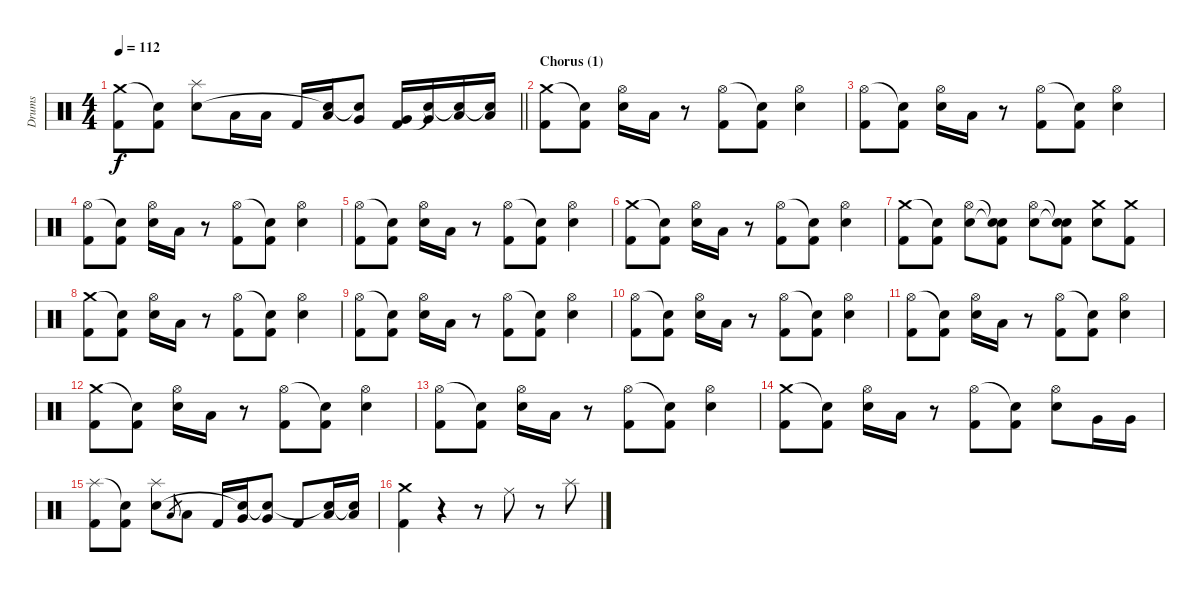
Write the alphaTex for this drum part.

\track ("Drums" "Drums") {instrument percussion}
\staff {score}
\articulation defaults
\ts (4 4)
\tempo 112
\clef neutral
\barLineRight lightlight
\ks c
("Crash medium (hit)" "Kick (hit) 2").8{dy f} ("Snare (hit)"{t} "Kick (hit) 2").8 ("Splash (hit)" "Electric Snare (hit)").8 "Low Tom (hit)".16 "Low Tom (hit)".16 "Kick (hit) 2".16 ("Low Tom (hit)" "Snare (hit)"{t}).16 ("Very Low Tom (hit)" "Snare (hit)"{t}).8 ("Very Low Tom (hit)" "Kick (hit) 2").16 ("Very Low Tom (hit)" "Snare (hit)"{t}).16 ("Low Floor Tom (hit)" "Snare (hit)"{t}).16 ("Low Floor Tom (hit)" "Snare (hit)"{t}).16 |
\section ("" "Chorus (1)")
("Crash medium (hit)" "Kick (hit) 2").8 ("Snare (hit)"{t} "Kick (hit) 2").8 ("Hi-Hat (open)" "Electric Snare (hit)").16 "Low Floor Tom (hit)".16 r.8 ("Hi-Hat (open)" "Kick (hit) 2").8 ("Snare (hit)"{t} "Kick (hit) 2").8 ("Hi-Hat (open)" "Electric Snare (hit)").4 |
("Hi-Hat (open)" "Kick (hit) 2").8 ("Snare (hit)"{t} "Kick (hit) 2").8 ("Hi-Hat (open)" "Electric Snare (hit)").16 "Low Floor Tom (hit)".16 r.8 ("Hi-Hat (open)" "Kick (hit) 2").8 ("Snare (hit)"{t} "Kick (hit) 2").8 ("Hi-Hat (open)" "Electric Snare (hit)").4 |
("Hi-Hat (open)" "Kick (hit) 2").8 ("Snare (hit)"{t} "Kick (hit) 2").8 ("Hi-Hat (open)" "Electric Snare (hit)").16 "Low Floor Tom (hit)".16 r.8 ("Hi-Hat (open)" "Kick (hit) 2").8 ("Snare (hit)"{t} "Kick (hit) 2").8 ("Hi-Hat (open)" "Electric Snare (hit)").4 |
("Hi-Hat (open)" "Kick (hit) 2").8 ("Snare (hit)"{t} "Kick (hit) 2").8 ("Hi-Hat (open)" "Electric Snare (hit)").16 "Low Floor Tom (hit)".16 r.8 ("Hi-Hat (open)" "Kick (hit) 2").8 ("Snare (hit)"{t} "Kick (hit) 2").8 ("Hi-Hat (open)" "Electric Snare (hit)").4 |
("Crash medium (hit)" "Kick (hit) 2").8 ("Snare (hit)"{t} "Kick (hit) 2").8 ("Hi-Hat (open)" "Electric Snare (hit)").16 "Low Floor Tom (hit)".16 r.8 ("Hi-Hat (open)" "Kick (hit) 2").8 ("Snare (hit)"{t} "Kick (hit) 2").8 ("Hi-Hat (open)" "Electric Snare (hit)").4 |
("Crash medium (hit)" "Kick (hit) 2").8 ("Snare (hit)"{t} "Kick (hit) 2").8 ("Hi-Hat (open)" "Electric Snare (hit)").8 ("Snare (hit)"{t} "Snare (hit)"{t} "Kick (hit) 2").8 ("Hi-Hat (open)" "Electric Snare (hit)").8 ("Snare (hit)"{t} "Snare (hit)"{t} "Kick (hit) 2").8 ("Crash medium (hit)" "Electric Snare (hit)").8 ("Crash medium (hit)" "Kick (hit) 2").8 |
("Crash medium (hit)" "Kick (hit) 2").8 ("Snare (hit)"{t} "Kick (hit) 2").8 ("Hi-Hat (open)" "Electric Snare (hit)").16 "Low Floor Tom (hit)".16 r.8 ("Hi-Hat (open)" "Kick (hit) 2").8 ("Snare (hit)"{t} "Kick (hit) 2").8 ("Hi-Hat (open)" "Electric Snare (hit)").4 |
("Hi-Hat (open)" "Kick (hit) 2").8 ("Snare (hit)"{t} "Kick (hit) 2").8 ("Hi-Hat (open)" "Electric Snare (hit)").16 "Low Floor Tom (hit)".16 r.8 ("Hi-Hat (open)" "Kick (hit) 2").8 ("Snare (hit)"{t} "Kick (hit) 2").8 ("Hi-Hat (open)" "Electric Snare (hit)").4 |
("Hi-Hat (open)" "Kick (hit) 2").8 ("Snare (hit)"{t} "Kick (hit) 2").8 ("Hi-Hat (open)" "Electric Snare (hit)").16 "Low Floor Tom (hit)".16 r.8 ("Hi-Hat (open)" "Kick (hit) 2").8 ("Snare (hit)"{t} "Kick (hit) 2").8 ("Hi-Hat (open)" "Electric Snare (hit)").4 |
("Hi-Hat (open)" "Kick (hit) 2").8 ("Snare (hit)"{t} "Kick (hit) 2").8 ("Hi-Hat (open)" "Electric Snare (hit)").16 "Low Floor Tom (hit)".16 r.8 ("Hi-Hat (open)" "Kick (hit) 2").8 ("Snare (hit)"{t} "Kick (hit) 2").8 ("Hi-Hat (open)" "Electric Snare (hit)").4 |
("Crash medium (hit)" "Kick (hit) 2").8 ("Snare (hit)"{t} "Kick (hit) 2").8 ("Hi-Hat (open)" "Electric Snare (hit)").16 "Low Floor Tom (hit)".16 r.8 ("Hi-Hat (open)" "Kick (hit) 2").8 ("Snare (hit)"{t} "Kick (hit) 2").8 ("Hi-Hat (open)" "Electric Snare (hit)").4 |
("Hi-Hat (open)" "Kick (hit) 2").8 ("Snare (hit)"{t} "Kick (hit) 2").8 ("Hi-Hat (open)" "Electric Snare (hit)").16 "Low Floor Tom (hit)".16 r.8 ("Hi-Hat (open)" "Kick (hit) 2").8 ("Snare (hit)"{t} "Kick (hit) 2").8 ("Hi-Hat (open)" "Electric Snare (hit)").4 |
("Crash medium (hit)" "Kick (hit) 2").8 ("Snare (hit)"{t} "Kick (hit) 2").8 ("Hi-Hat (open)" "Electric Snare (hit)").16 "Low Floor Tom (hit)".16 r.8 ("Hi-Hat (open)" "Kick (hit) 2").8 ("Snare (hit)"{t} "Kick (hit) 2").8 ("Hi-Hat (open)" "Electric Snare (hit)").8 "Very Low Tom (hit)".16 "Very Low Tom (hit)".16 |
("Splash (hit)" "Kick (hit) 2").8 ("Snare (hit)"{t} "Kick (hit) 2").8 ("Splash (hit)" "Electric Snare (hit)").8 "Low Tom (hit)".8{gr} "Low Tom (hit)".8 "Kick (hit) 2".16 ("Very Low Tom (hit)" "Snare (hit)"{t}).16 ("Very Low Tom (hit)" "Snare (hit)"{t}).8 "Kick (hit) 2".8 ("Low Floor Tom (hit)" "Snare (hit)"{t}).16 ("Low Floor Tom (hit)" "Snare (hit)"{t}).16 |
("Crash medium (hit)" "Kick (hit) 2").4 r.4 r.8 "Ride (middle)".8 r.8 "Splash (hit)".8
